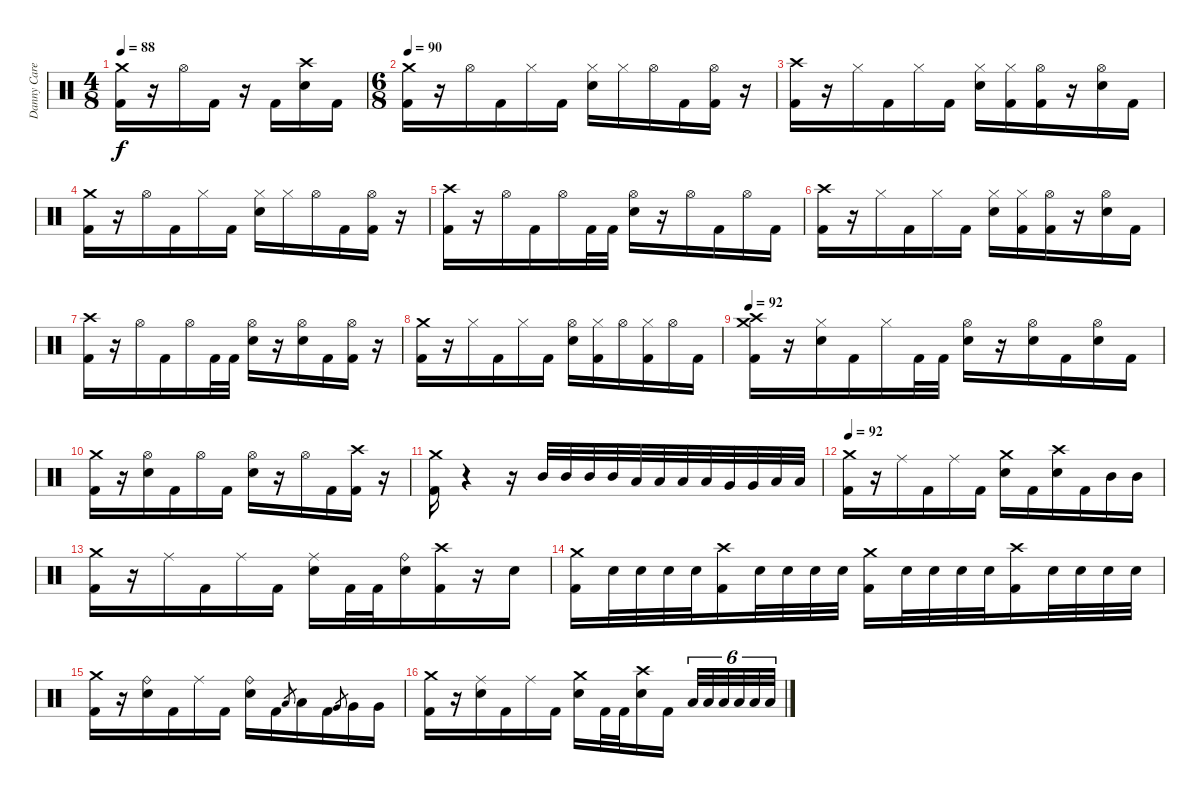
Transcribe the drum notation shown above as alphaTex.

\track ("Danny Carey" "Danny Care") {instrument percussion}
\staff {score}
\articulation defaults
\ts (4 8)
\tempo 88
\clef neutral
\ks c
("Crash medium (hit)" "Kick (hit) 2").16{dy f} r.16 "Hi-Hat (open)".16 "Kick (hit) 2".16 r.16 "Kick (hit) 2".16 ("Crash high (hit)" "Electric Snare (hit)").16 "Kick (hit) 2".16 |
\ts (6 8)
\tempo 90
("Crash medium (hit)" "Kick (hit) 2").16 r.16 "Hi-Hat (open)".16 "Kick (hit) 2".16 "Hi-Hat (closed)".16 "Kick (hit) 2".16 ("Hi-Hat (closed)" "Electric Snare (hit)").16 "Hi-Hat (closed)".16 "Hi-Hat (open)".16 "Kick (hit) 2".16 ("Hi-Hat (open)" "Kick (hit) 2").16 r.16 |
("Crash high (hit)" "Kick (hit) 2").16 r.16 "Hi-Hat (closed)".16 "Kick (hit) 2".16 "Hi-Hat (closed)".16 "Kick (hit) 2".16 ("Hi-Hat (closed)" "Electric Snare (hit)").16 ("Hi-Hat (closed)" "Kick (hit) 2").16 ("Hi-Hat (open)" "Kick (hit) 2").16 r.16 ("Hi-Hat (open)" "Electric Snare (hit)").16 "Kick (hit) 2".16 |
("Crash medium (hit)" "Kick (hit) 2").16 r.16 "Hi-Hat (open)".16 "Kick (hit) 2".16 "Hi-Hat (closed)".16 "Kick (hit) 2".16 ("Hi-Hat (closed)" "Electric Snare (hit)").16 "Hi-Hat (closed)".16 "Hi-Hat (open)".16 "Kick (hit) 2".16 ("Hi-Hat (open)" "Kick (hit) 2").16 r.16 |
("Crash high (hit)" "Kick (hit) 2").16 r.16 "Hi-Hat (open)".16 "Kick (hit) 2".16 "Hi-Hat (open)".16 "Kick (hit) 2".32 "Kick (hit) 2".32 ("Hi-Hat (open)" "Electric Snare (hit)").16 r.16 "Hi-Hat (open)".16 "Kick (hit) 2".16 "Hi-Hat (open)".16 "Kick (hit) 2".16 |
("Crash high (hit)" "Kick (hit) 2").16 r.16 "Hi-Hat (closed)".16 "Kick (hit) 2".16 "Hi-Hat (closed)".16 "Kick (hit) 2".16 ("Hi-Hat (closed)" "Electric Snare (hit)").16 ("Hi-Hat (closed)" "Kick (hit) 2").16 ("Hi-Hat (open)" "Kick (hit) 2").16 r.16 ("Hi-Hat (open)" "Electric Snare (hit)").16 "Kick (hit) 2".16 |
("Crash high (hit)" "Kick (hit) 2").16 r.16 "Hi-Hat (open)".16 "Kick (hit) 2".16 "Hi-Hat (open)".16 "Kick (hit) 2".32 "Kick (hit) 2".32 ("Hi-Hat (open)" "Electric Snare (hit)").16 r.16 ("Hi-Hat (open)" "Electric Snare (hit)").16 "Kick (hit) 2".16 ("Hi-Hat (open)" "Kick (hit) 2").16 r.16 |
("Crash medium (hit)" "Kick (hit) 2").16 r.16 "Hi-Hat (closed)".16 "Kick (hit) 2".16 "Hi-Hat (closed)".16 "Kick (hit) 2".16 ("Hi-Hat (open)" "Electric Snare (hit)").16 ("Hi-Hat (closed)" "Kick (hit) 2").16 "Hi-Hat (open)".16 ("Hi-Hat (closed)" "Kick (hit) 2").16 "Hi-Hat (open)".16 "Kick (hit) 2".16 |
\tempo 92
("Crash medium (hit)" "Crash high (hit)" "Kick (hit) 2").16 r.16 ("Hi-Hat (closed)" "Electric Snare (hit)").16 "Kick (hit) 2".16 "Hi-Hat (closed)".16 "Kick (hit) 2".32 "Kick (hit) 2".32 ("Hi-Hat (open)" "Electric Snare (hit)").16 r.16 ("Hi-Hat (open)" "Electric Snare (hit)").16 "Kick (hit) 2".16 ("Hi-Hat (open)" "Electric Snare (hit)").16 "Kick (hit) 2".16 |
("Crash medium (hit)" "Kick (hit) 2").16 r.16 ("Hi-Hat (open)" "Electric Snare (hit)").16 "Kick (hit) 2".16 "Hi-Hat (open)".16 "Kick (hit) 2".16 ("Hi-Hat (open)" "Electric Snare (hit)").16 r.16 "Hi-Hat (open)".16 "Kick (hit) 2".16 ("Crash high (hit)" "Kick (hit) 2").16 r.16 |
("Crash medium (hit)" "Kick (hit) 2").16 r.4 r.16 "Mid Tom (hit)".32 "Mid Tom (hit)".32 "Mid Tom (hit)".32 "Mid Tom (hit)".32 "Low Tom (hit)".32 "Low Tom (hit)".32 "Low Tom (hit)".32 "Low Tom (hit)".32 "Very Low Tom (hit)".32 "Very Low Tom (hit)".32 "Low Floor Tom (hit)".32 "Low Floor Tom (hit)".32 |
\tempo 92
("Crash medium (hit)" "Kick (hit) 2").16{volume 16} r.16 "Ride (middle)".16 "Kick (hit) 2".16 "Ride (middle)".16 "Kick (hit) 2".16 ("Crash medium (hit)" "Electric Snare (hit)").16 "Kick (hit) 2".16 ("Crash high (hit)" "Electric Snare (hit)").16 "Kick (hit) 2".16 "Mid Tom (hit)".16 "Mid Tom (hit)".16 |
("Crash medium (hit)" "Kick (hit) 2").16 r.16 "Ride (middle)".16 "Kick (hit) 2".16 "Ride (middle)".16 "Kick (hit) 2".16 ("Ride (middle)" "Electric Snare (hit)").16 "Kick (hit) 2".32 "Kick (hit) 2".32 ("Ride (bell)" "Electric Snare (hit)").16 ("Crash high (hit)" "Kick (hit) 2").16 r.16 "Electric Snare (hit)".16 |
("Crash medium (hit)" "Kick (hit) 2").16 "Electric Snare (hit)".32 "Electric Snare (hit)".32 "Electric Snare (hit)".32 "Electric Snare (hit)".32 ("Crash high (hit)" "Kick (hit) 2").16 "Electric Snare (hit)".32 "Electric Snare (hit)".32 "Electric Snare (hit)".32 "Electric Snare (hit)".32 ("Crash medium (hit)" "Kick (hit) 2").16 "Electric Snare (hit)".32 "Electric Snare (hit)".32 "Electric Snare (hit)".32 "Electric Snare (hit)".32 ("Crash high (hit)" "Kick (hit) 2").16 "Electric Snare (hit)".32 "Electric Snare (hit)".32 "Electric Snare (hit)".32 "Electric Snare (hit)".32 |
("Crash medium (hit)" "Kick (hit) 2").16 r.16 ("Ride (bell)" "Electric Snare (hit)").16 "Kick (hit) 2".16 "Ride (middle)".16 "Kick (hit) 2".16 ("Ride (bell)" "Electric Snare (hit)").16 "Kick (hit) 2".16 "Low Tom (hit)".8{gr} "Low Tom (hit)".16 "Kick (hit) 2".16 "Very Low Tom (hit)".8{gr} "Very Low Tom (hit)".16 "Very Low Tom (hit)".16 |
("Crash medium (hit)" "Kick (hit) 2").16 r.16 ("Ride (middle)" "Electric Snare (hit)").16 "Kick (hit) 2".16 "Ride (middle)".16 "Kick (hit) 2".16 ("Crash medium (hit)" "Electric Snare (hit)").16 "Kick (hit) 2".32 "Kick (hit) 2".32 ("Crash high (hit)" "Electric Snare (hit)").16 "Kick (hit) 2".16 "Low Tom (hit)".32{tu (6 4)} "Low Tom (hit)".32{tu (6 4)} "Low Tom (hit)".32{tu (6 4)} "Low Tom (hit)".32{tu (6 4)} "Low Tom (hit)".32{tu (6 4)} "Low Tom (hit)".32{tu (6 4)}
